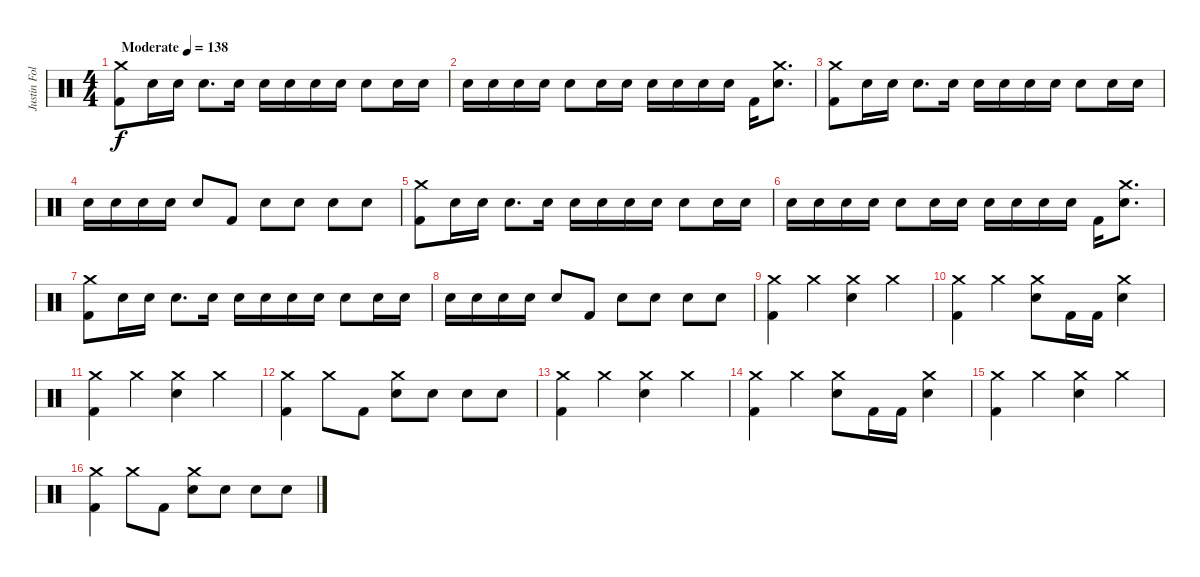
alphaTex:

\track ("Justin Foley" "Justin Fol") {instrument percussion}
\staff {score}
\articulation defaults
\ts (4 4)
\tempo (138 "Moderate")
\clef neutral
\ks c
("Crash medium (hit)" "Kick (hit) 2").8{dy f} "Electric Snare (hit)".16 "Electric Snare (hit)".16 "Electric Snare (hit)".8{d} "Electric Snare (hit)".16 "Electric Snare (hit)".16 "Electric Snare (hit)".16 "Electric Snare (hit)".16 "Electric Snare (hit)".16 "Electric Snare (hit)".8 "Electric Snare (hit)".16 "Electric Snare (hit)".16 |
"Electric Snare (hit)".16 "Electric Snare (hit)".16 "Electric Snare (hit)".16 "Electric Snare (hit)".16 "Electric Snare (hit)".8 "Electric Snare (hit)".16 "Electric Snare (hit)".16 "Electric Snare (hit)".16 "Electric Snare (hit)".16 "Electric Snare (hit)".16 "Electric Snare (hit)".16 "Kick (hit) 2".16 ("Crash medium (hit)" "Electric Snare (hit)").8{d} |
("Crash medium (hit)" "Kick (hit) 2").8 "Electric Snare (hit)".16 "Electric Snare (hit)".16 "Electric Snare (hit)".8{d} "Electric Snare (hit)".16 "Electric Snare (hit)".16 "Electric Snare (hit)".16 "Electric Snare (hit)".16 "Electric Snare (hit)".16 "Electric Snare (hit)".8 "Electric Snare (hit)".16 "Electric Snare (hit)".16 |
"Electric Snare (hit)".16 "Electric Snare (hit)".16 "Electric Snare (hit)".16 "Electric Snare (hit)".16 "Electric Snare (hit)".8 "Kick (hit) 2".8 "Electric Snare (hit)".8 "Electric Snare (hit)".8 "Electric Snare (hit)".8 "Electric Snare (hit)".8 |
("Crash medium (hit)" "Kick (hit) 2").8 "Electric Snare (hit)".16 "Electric Snare (hit)".16 "Electric Snare (hit)".8{d} "Electric Snare (hit)".16 "Electric Snare (hit)".16 "Electric Snare (hit)".16 "Electric Snare (hit)".16 "Electric Snare (hit)".16 "Electric Snare (hit)".8 "Electric Snare (hit)".16 "Electric Snare (hit)".16 |
"Electric Snare (hit)".16 "Electric Snare (hit)".16 "Electric Snare (hit)".16 "Electric Snare (hit)".16 "Electric Snare (hit)".8 "Electric Snare (hit)".16 "Electric Snare (hit)".16 "Electric Snare (hit)".16 "Electric Snare (hit)".16 "Electric Snare (hit)".16 "Electric Snare (hit)".16 "Kick (hit) 2".16 ("Crash medium (hit)" "Electric Snare (hit)").8{d} |
("Crash medium (hit)" "Kick (hit) 2").8 "Electric Snare (hit)".16 "Electric Snare (hit)".16 "Electric Snare (hit)".8{d} "Electric Snare (hit)".16 "Electric Snare (hit)".16 "Electric Snare (hit)".16 "Electric Snare (hit)".16 "Electric Snare (hit)".16 "Electric Snare (hit)".8 "Electric Snare (hit)".16 "Electric Snare (hit)".16 |
"Electric Snare (hit)".16 "Electric Snare (hit)".16 "Electric Snare (hit)".16 "Electric Snare (hit)".16 "Electric Snare (hit)".8 "Kick (hit) 2".8 "Electric Snare (hit)".8 "Electric Snare (hit)".8 "Electric Snare (hit)".8 "Electric Snare (hit)".8 |
("Crash medium (hit)" "Kick (hit) 2").4 "Crash medium (hit)".4 ("Crash medium (hit)" "Electric Snare (hit)").4 "Crash medium (hit)".4 |
("Crash medium (hit)" "Kick (hit) 2").4 "Crash medium (hit)".4 ("Crash medium (hit)" "Electric Snare (hit)").8 "Kick (hit) 2".16 "Kick (hit) 2".16 ("Crash medium (hit)" "Electric Snare (hit)").4 |
("Crash medium (hit)" "Kick (hit) 2").4 "Crash medium (hit)".4 ("Crash medium (hit)" "Electric Snare (hit)").4 "Crash medium (hit)".4 |
("Crash medium (hit)" "Kick (hit) 2").4 "Crash medium (hit)".8 "Kick (hit) 2".8 ("Crash medium (hit)" "Electric Snare (hit)").8 "Electric Snare (hit)".8 "Electric Snare (hit)".8 "Electric Snare (hit)".8 |
("Crash medium (hit)" "Kick (hit) 2").4 "Crash medium (hit)".4 ("Crash medium (hit)" "Electric Snare (hit)").4 "Crash medium (hit)".4 |
("Crash medium (hit)" "Kick (hit) 2").4 "Crash medium (hit)".4 ("Crash medium (hit)" "Electric Snare (hit)").8 "Kick (hit) 2".16 "Kick (hit) 2".16 ("Crash medium (hit)" "Electric Snare (hit)").4 |
("Crash medium (hit)" "Kick (hit) 2").4 "Crash medium (hit)".4 ("Crash medium (hit)" "Electric Snare (hit)").4 "Crash medium (hit)".4 |
("Crash medium (hit)" "Kick (hit) 2").4 "Crash medium (hit)".8 "Kick (hit) 2".8 ("Crash medium (hit)" "Electric Snare (hit)").8 "Electric Snare (hit)".8 "Electric Snare (hit)".8 "Electric Snare (hit)".8
